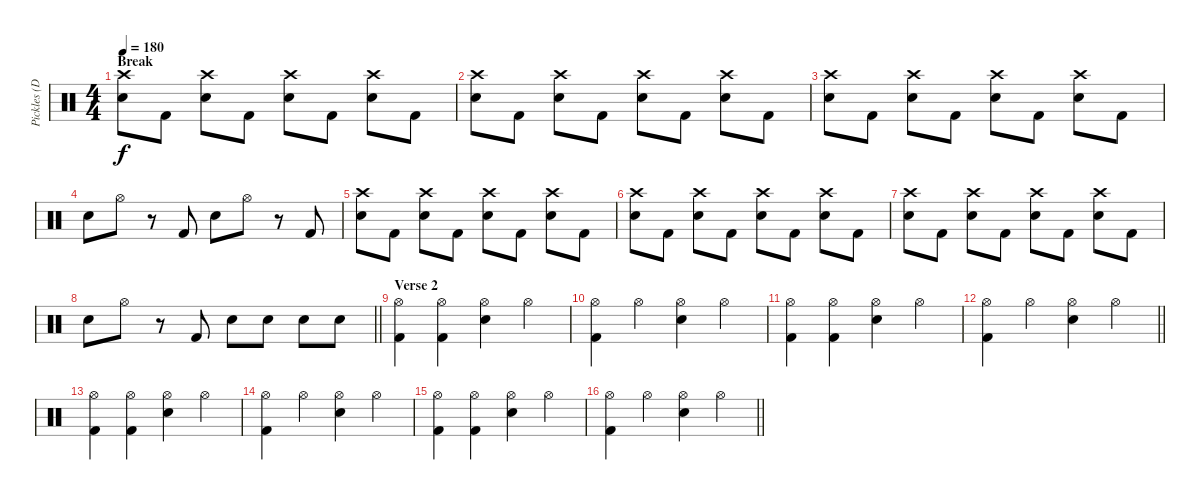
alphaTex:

\track ("Pickles (Drums)" "Pickles (D") {instrument percussion}
\staff {score}
\articulation defaults
\ts (4 4)
\section ("" "Break")
\tempo 180
\clef neutral
\ks c
("Crash high (hit)" "Snare (hit) 2").8{dy f} "Kick (hit) 2".8 ("Crash high (hit)" "Snare (hit) 2").8 "Kick (hit) 2".8 ("Crash high (hit)" "Snare (hit) 2").8 "Kick (hit) 2".8 ("Crash high (hit)" "Snare (hit) 2").8 "Kick (hit) 2".8 |
("Crash high (hit)" "Snare (hit) 2").8 "Kick (hit) 2".8 ("Crash high (hit)" "Snare (hit) 2").8 "Kick (hit) 2".8 ("Crash high (hit)" "Snare (hit) 2").8 "Kick (hit) 2".8 ("Crash high (hit)" "Snare (hit) 2").8 "Kick (hit) 2".8 |
("Crash high (hit)" "Snare (hit) 2").8 "Kick (hit) 2".8 ("Crash high (hit)" "Snare (hit) 2").8 "Kick (hit) 2".8 ("Crash high (hit)" "Snare (hit) 2").8 "Kick (hit) 2".8 ("Crash high (hit)" "Snare (hit) 2").8 "Kick (hit) 2".8 |
"Snare (hit) 2".8 "Hi-Hat (open)".8 r.8{volume 0} "Kick (hit) 2".8{volume 16} "Snare (hit) 2".8 "Hi-Hat (open)".8 r.8{volume 0} "Kick (hit) 2".8{volume 16} |
("Crash high (hit)" "Snare (hit) 2").8 "Kick (hit) 2".8 ("Crash high (hit)" "Snare (hit) 2").8 "Kick (hit) 2".8 ("Crash high (hit)" "Snare (hit) 2").8 "Kick (hit) 2".8 ("Crash high (hit)" "Snare (hit) 2").8 "Kick (hit) 2".8 |
("Crash high (hit)" "Snare (hit) 2").8 "Kick (hit) 2".8 ("Crash high (hit)" "Snare (hit) 2").8 "Kick (hit) 2".8 ("Crash high (hit)" "Snare (hit) 2").8 "Kick (hit) 2".8 ("Crash high (hit)" "Snare (hit) 2").8 "Kick (hit) 2".8 |
("Crash high (hit)" "Snare (hit) 2").8 "Kick (hit) 2".8 ("Crash high (hit)" "Snare (hit) 2").8 "Kick (hit) 2".8 ("Crash high (hit)" "Snare (hit) 2").8 "Kick (hit) 2".8 ("Crash high (hit)" "Snare (hit) 2").8 "Kick (hit) 2".8 |
\barLineRight lightlight "Snare (hit) 2".8 "Hi-Hat (open)".8
r.8{volume 0} "Kick (hit) 2".8{volume 16} "Snare (hit) 2".8 "Snare (hit) 2".8 "Snare (hit) 2".8 "Snare (hit) 2".8 |
\section ("" "Verse 2")
("Hi-Hat (open)" "Kick (hit) 2").4 ("Hi-Hat (open)" "Kick (hit) 2").4 ("Hi-Hat (open)" "Snare (hit) 2").4 "Hi-Hat (open)".4 |
("Hi-Hat (open)" "Kick (hit) 2").4 "Hi-Hat (open)".4 ("Hi-Hat (open)" "Snare (hit) 2").4 "Hi-Hat (open)".4 |
("Hi-Hat (open)" "Kick (hit) 2").4 ("Hi-Hat (open)" "Kick (hit) 2").4 ("Hi-Hat (open)" "Snare (hit) 2").4 "Hi-Hat (open)".4 |
\barLineRight lightlight
("Hi-Hat (open)" "Kick (hit) 2").4 "Hi-Hat (open)".4 ("Hi-Hat (open)" "Snare (hit) 2").4 "Hi-Hat (open)".4 |
("Hi-Hat (open)" "Kick (hit) 2").4 ("Hi-Hat (open)" "Kick (hit) 2").4 ("Hi-Hat (open)" "Snare (hit) 2").4 "Hi-Hat (open)".4 |
("Hi-Hat (open)" "Kick (hit) 2").4 "Hi-Hat (open)".4 ("Hi-Hat (open)" "Snare (hit) 2").4 "Hi-Hat (open)".4 |
("Hi-Hat (open)" "Kick (hit) 2").4 ("Hi-Hat (open)" "Kick (hit) 2").4 ("Hi-Hat (open)" "Snare (hit) 2").4 "Hi-Hat (open)".4 |
\barLineRight lightlight
("Hi-Hat (open)" "Kick (hit) 2").4 "Hi-Hat (open)".4 ("Hi-Hat (open)" "Snare (hit) 2").4 "Hi-Hat (open)".4
